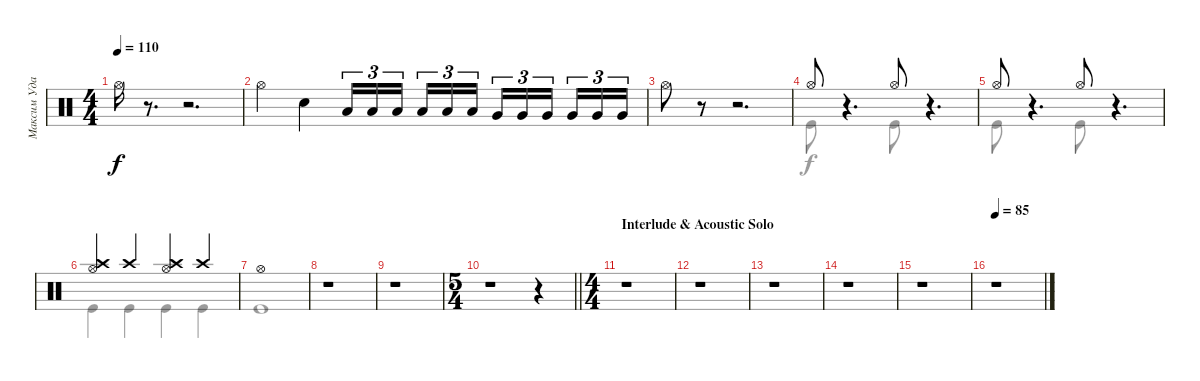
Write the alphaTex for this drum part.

\track ("Максим Удалов" "Максим Уда") {instrument percussion}
\staff {score}
\articulation defaults
\voice
\ts (4 4)
\tempo 110
\clef neutral
\ks c "Hi-Hat (open)".16{dy f}
r.8{d} r.2{d} |
"Hi-Hat (open)".4 "Snare (hit) 2".4 "Low Tom (hit)".16{tu (3 2)} "Low Tom (hit)".16{tu (3 2)} "Low Tom (hit)".16{tu (3 2) beam splitsecondary} "Low Tom (hit)".16{tu (3 2)} "Low Tom (hit)".16{tu (3 2)} "Low Tom (hit)".16{tu (3 2)} "Very Low Tom (hit)".16{tu (3 2)} "Very Low Tom (hit)".16{tu (3 2)} "Very Low Tom (hit)".16{tu (3 2) beam splitsecondary} "Very Low Tom (hit)".16{tu (3 2)} "Very Low Tom (hit)".16{tu (3 2)} "Very Low Tom (hit)".16{tu (3 2)} |
"Hi-Hat (open)".8 r.8 r.2{d} |
"Hi-Hat (open)".8 r.4{d} "Hi-Hat (open)".8 r.4{d} |
"Hi-Hat (open)".8 r.4{d} "Hi-Hat (open)".8 r.4{d} |
("Hi-Hat (open)" "Crash high (hit)").4 "Crash high (hit)".4 ("Hi-Hat (open)" "Crash high (hit)").4 "Crash high (hit)".4 |
"Hi-Hat (open)".1 |
r.1 |
r.1 |
\ts (5 4)
\barLineRight lightlight
r.1 r.4 |
\ts (4 4)
\section ("" "Interlude & Acoustic Solo")
r.1 |
r.1 |
r.1 |
r.1 |
r.1 |
\tempo 85
r.1
\voice
\clef neutral
\ottava regular
\simile none
\ks c
|
|
|
"Kick (hit)".8 r.4{d} "Kick (hit)".8 r.4{d} |
"Kick (hit)".8 r.4{d} "Kick (hit)".8 r.4{d} |
"Kick (hit)".4 "Kick (hit)".4 "Kick (hit)".4 "Kick (hit)".4 |
"Kick (hit)".1 |
|
|
\barLineRight lightlight
|
|
|
|
|
|
